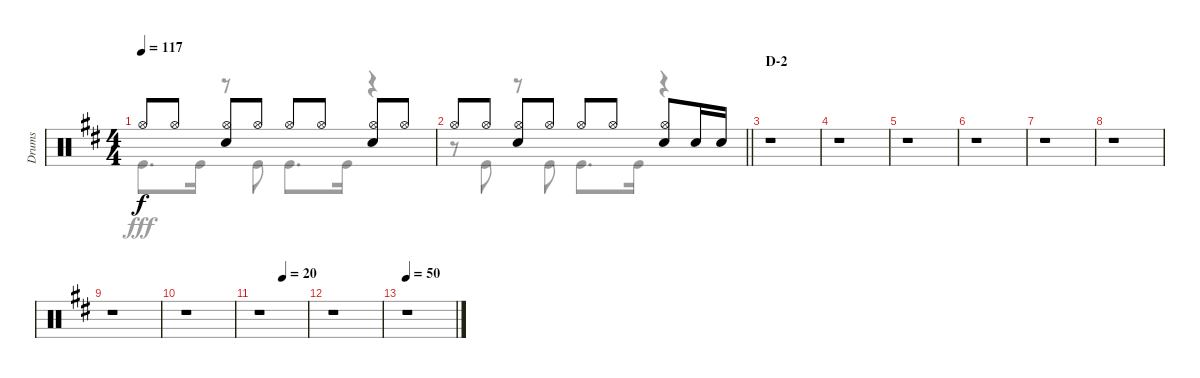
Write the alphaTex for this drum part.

\track ("Drums" "Drums") {instrument percussion}
\staff {score}
\articulation defaults
\voice
\ts (4 4)
\tempo 117
\clef neutral
\ks d "Hi-Hat (open)".8{dy f} "Hi-Hat (open)".8
("Hi-Hat (open)" "Snare (hit) 2").8 "Hi-Hat (open)".8 "Hi-Hat (open)".8 "Hi-Hat (open)".8 ("Hi-Hat (open)" "Snare (hit) 2").8 "Hi-Hat (open)".8 |
\barLineRight lightlight "Hi-Hat (open)".8 "Hi-Hat (open)".8
("Hi-Hat (open)" "Snare (hit) 2").8 "Hi-Hat (open)".8 "Hi-Hat (open)".8 "Hi-Hat (open)".8 ("Hi-Hat (open)" "Snare (hit) 2").8 "Snare (hit) 2".16 "Snare (hit) 2".16 |
\section ("" "D-2")
r.1 |
r.1 |
r.1 |
r.1 |
r.1 |
r.1 |
r.1 |
r.1 |
\tempo (20 0.5)
r.1 |
r.1 |
\tempo 50
r.1
\voice
\clef neutral
\ottava regular
\simile none
\ks d "Kick (hit)".8{d dy fff} "Kick (hit)".16
r.8 "Kick (hit)".8 "Kick (hit)".8{d} "Kick (hit)".16 r.4 |
\barLineRight lightlight
r.8 "Kick (hit)".8 r.8 "Kick (hit)".8 "Kick (hit)".8{d} "Kick (hit)".16 r.4 |
r.1 |
r.1 |
r.1 |
r.1 |
r.1 |
r.1 |
r.1 |
r.1 |
r.1 |
r.1 |
r.1
